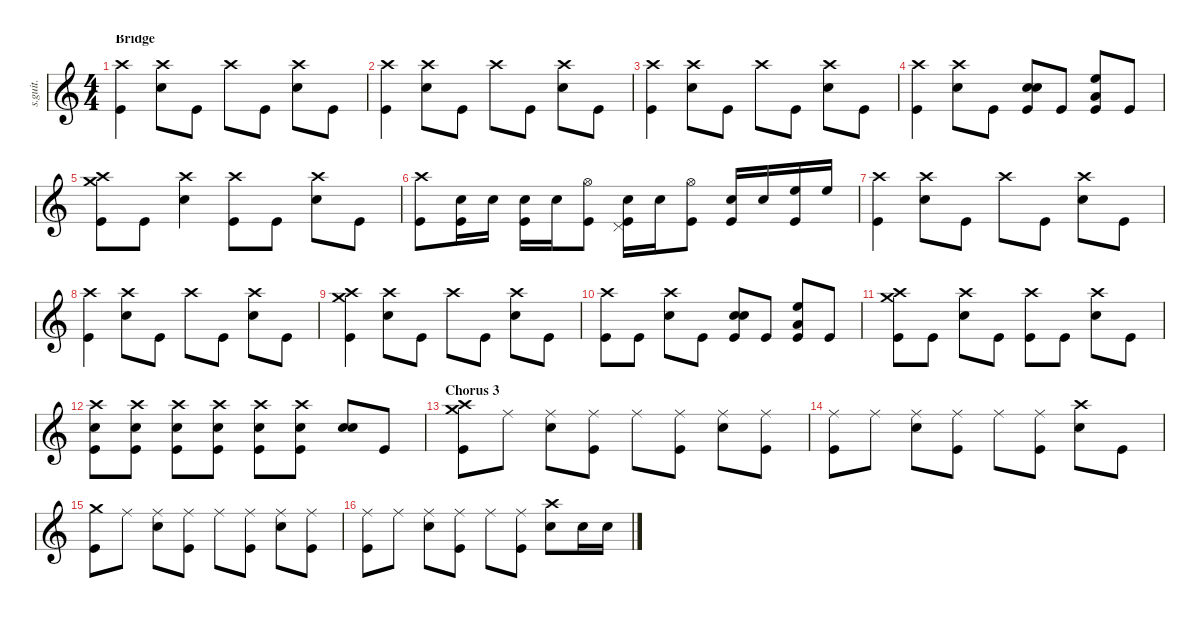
\defaultSystemsLayout 4
\hideDynamics
\bracketExtendMode nobrackets
\track ("Dave Grohl" "s.guit.") {instrument percussion}
\staff {score}
\articulation defaults
\ts (4 4)
\section ("" "Bridge")
\tempo (136 hide)
\clef g2
\ks c
("Crash high (hit)" "Kick (hit)").4{dy f} ("Crash high (hit)" "Snare (hit) 2").8 "Kick (hit)".8 "Crash high (hit)".8 "Kick (hit)".8 ("Crash high (hit)" "Snare (hit) 2").8 "Kick (hit)".8 |
("Crash high (hit)" "Kick (hit)").4 ("Crash high (hit)" "Snare (hit) 2").8 "Kick (hit)".8 "Crash high (hit)".8 "Kick (hit)".8 ("Crash high (hit)" "Snare (hit) 2").8 "Kick (hit)".8 |
("Crash high (hit)" "Kick (hit)").4 ("Crash high (hit)" "Snare (hit) 2").8 "Kick (hit)".8 "Crash high (hit)".8 "Kick (hit)".8 ("Crash high (hit)" "Snare (hit) 2").8 "Kick (hit)".8 |
("Crash high (hit)" "Kick (hit)").4 ("Crash high (hit)" "Snare (hit) 2").8 "Kick (hit)".8 ("Snare (hit) 2" "Snare (hit) 2" "Kick (hit)").8{bd 30} "Kick (hit)".8 ("High Floor Tom (hit)" "Low Floor Tom (hit)" "Kick (hit)").8{dy ff} "Kick (hit)".8{dy f} |
("Crash high (hit)" "Crash medium (hit)" "Kick (hit)").8 "Kick (hit)".8 ("Crash high (hit)" "Snare (hit) 2").4 ("Crash high (hit)" "Kick (hit)").8 "Kick (hit)".8 ("Crash high (hit)" "Snare (hit) 2").8 "Kick (hit)".8 |
("Crash high (hit)" "Kick (hit)").8 ("Snare (hit) 2" "Kick (hit)").16 "Snare (hit) 2".16 ("Snare (hit) 2" "Kick (hit)").16 "Snare (hit) 2".16 ("Hi-Hat (open)" "Kick (hit)").8 ("Pedal Hi-Hat (hit)" "Snare (hit) 2" "Kick (hit)").16 "Snare (hit) 2".16 ("Hi-Hat (open)" "Kick (hit)").8 ("Snare (hit) 2" "Kick (hit)").16 "Snare (hit) 2".16 ("High Floor Tom (hit)" "Kick (hit)").16 "High Floor Tom (hit)".16{dy ff} |
("Crash high (hit)" "Kick (hit)").4{dy f} ("Crash high (hit)" "Snare (hit) 2").8 "Kick (hit)".8 "Crash high (hit)".8 "Kick (hit)".8 ("Crash high (hit)" "Snare (hit) 2").8 "Kick (hit)".8 |
("Crash high (hit)" "Kick (hit)").4 ("Crash high (hit)" "Snare (hit) 2").8 "Kick (hit)".8 "Crash high (hit)".8 "Kick (hit)".8 ("Crash high (hit)" "Snare (hit) 2").8 "Kick (hit)".8 |
("Crash high (hit)" "Crash medium (hit)" "Kick (hit)").4 ("Crash high (hit)" "Snare (hit) 2").8 "Kick (hit)".8 "Crash high (hit)".8 "Kick (hit)".8 ("Crash high (hit)" "Snare (hit) 2").8 "Kick (hit)".8 |
("Crash high (hit)" "Kick (hit)").8 "Kick (hit)".8 ("Crash high (hit)" "Snare (hit) 2").8 "Kick (hit)".8 ("Snare (hit) 2" "Snare (hit) 2" "Kick (hit)").8{bd 30} "Kick (hit)".8 ("High Floor Tom (hit)" "Low Floor Tom (hit)" "Kick (hit)").8{dy ff} "Kick (hit)".8{dy f} |
("Crash high (hit)" "Crash medium (hit)" "Kick (hit)").8 "Kick (hit)".8 ("Crash high (hit)" "Snare (hit) 2").8 "Kick (hit)".8 ("Crash high (hit)" "Kick (hit)").8 "Kick (hit)".8 ("Crash high (hit)" "Snare (hit) 2").8 "Kick (hit)".8 |
("Crash high (hit)" "Snare (hit) 2" "Kick (hit)").8 ("Crash high (hit)" "Snare (hit) 2" "Kick (hit)").8{dy pp} ("Crash high (hit)" "Snare (hit) 2" "Kick (hit)").8{dy p} ("Crash high (hit)" "Snare (hit) 2" "Kick (hit)").8{dy mp} ("Crash high (hit)" "Snare (hit) 2" "Kick (hit)").8{dy mf} ("Crash high (hit)" "Snare (hit) 2" "Kick (hit)").8{dy f} ("Snare (hit) 2" "Snare (hit) 2").8{bd 30} "Kick (hit)".8 |
\section ("" "Chorus 3")
("Crash high (hit)" "Crash medium (hit)" "Kick (hit)").8 "Ride (middle)".8{dy ppp} ("Ride (middle)" "Snare (hit) 2").8{dy f} ("Ride (middle)" "Kick (hit)").8 "Ride (middle)".8 ("Ride (middle)" "Kick (hit)").8 ("Ride (middle)" "Snare (hit) 2").8 ("Ride (middle)" "Kick (hit)").8 |
("Ride (middle)" "Kick (hit)").8 "Ride (middle)".8{dy ppp} ("Ride (middle)" "Snare (hit) 2").8{dy f} ("Ride (middle)" "Kick (hit)").8 "Ride (middle)".8 ("Ride (middle)" "Kick (hit)").8 ("Crash high (hit)" "Snare (hit) 2").8 "Kick (hit)".8 |
("Crash medium (hit)" "Kick (hit)").8 "Ride (middle)".8{dy ppp} ("Ride (middle)" "Snare (hit) 2").8{dy f} ("Ride (middle)" "Kick (hit)").8 "Ride (middle)".8 ("Ride (middle)" "Kick (hit)").8 ("Ride (middle)" "Snare (hit) 2").8 ("Ride (middle)" "Kick (hit)").8 |
("Ride (middle)" "Kick (hit)").8 "Ride (middle)".8{dy ppp} ("Ride (middle)" "Snare (hit) 2").8{dy f} ("Ride (middle)" "Kick (hit)").8 "Ride (middle)".8 ("Ride (middle)" "Kick (hit)").8 ("Crash high (hit)" "Snare (hit) 2").8 "Snare (hit) 2".16 "Snare (hit) 2".16
